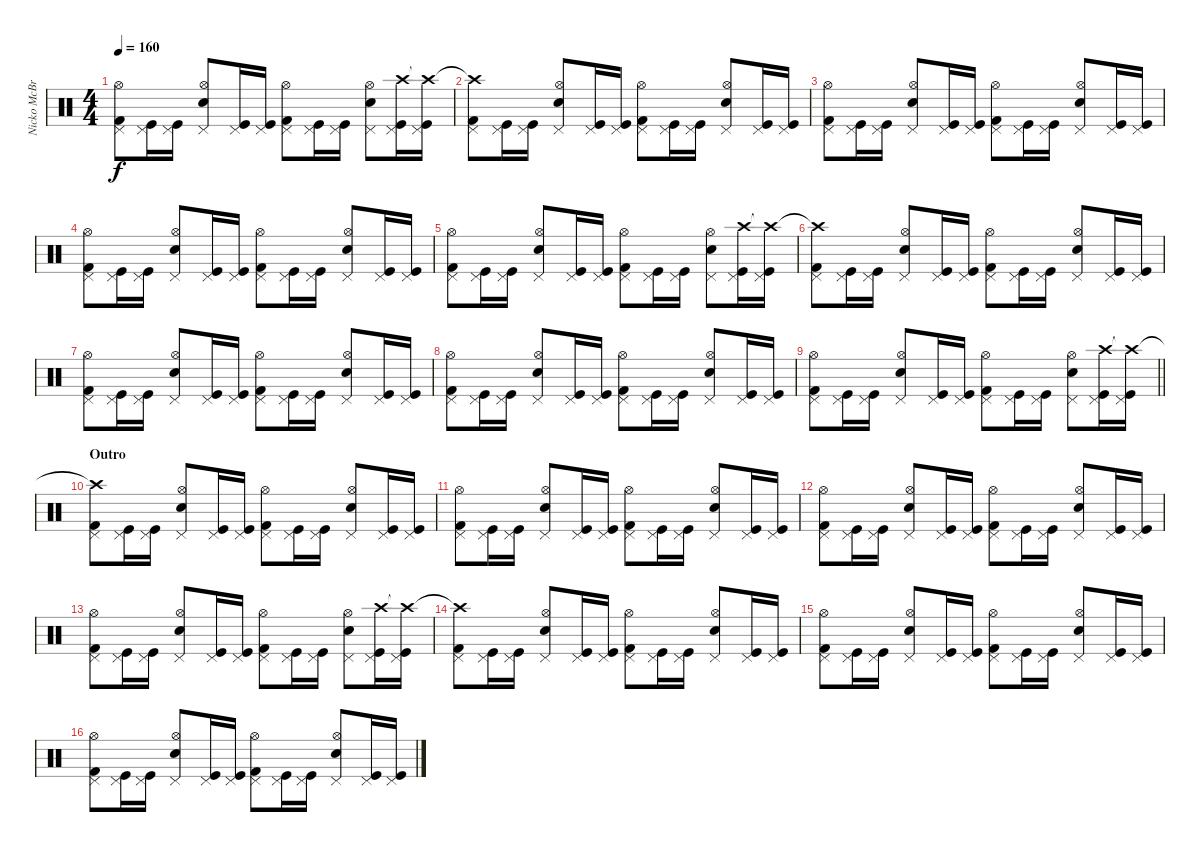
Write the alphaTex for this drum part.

\track ("Nicko McBrain" "Nicko McBr") {instrument percussion}
\staff {score}
\articulation defaults
\ts (4 4)
\tempo 160
\clef neutral
\ks c
("Kick (hit) 2" "Pedal Hi-Hat (hit)" "Hi-Hat (open)").8{dy f} ("Kick (hit)" "Pedal Hi-Hat (hit)").16 ("Kick (hit)" "Pedal Hi-Hat (hit)").16 ("Snare (hit) 2" "Pedal Hi-Hat (hit)" "Hi-Hat (open)").8 ("Kick (hit)" "Pedal Hi-Hat (hit)").16 ("Kick (hit)" "Pedal Hi-Hat (hit)").16 ("Kick (hit) 2" "Pedal Hi-Hat (hit)" "Hi-Hat (open)").8 ("Kick (hit)" "Pedal Hi-Hat (hit)").16 ("Kick (hit)" "Pedal Hi-Hat (hit)").16 ("Snare (hit) 2" "Pedal Hi-Hat (hit)" "Hi-Hat (open)").8 ("Kick (hit)" "Pedal Hi-Hat (hit)" "Crash high (hit)").16 ("Kick (hit)" "Pedal Hi-Hat (hit)" "Crash high (hit)"{t}).16 |
("Kick (hit) 2" "Pedal Hi-Hat (hit)" "Crash high (hit)"{t}).8 ("Kick (hit)" "Pedal Hi-Hat (hit)").16 ("Kick (hit)" "Pedal Hi-Hat (hit)").16 ("Snare (hit) 2" "Pedal Hi-Hat (hit)" "Hi-Hat (open)").8 ("Kick (hit)" "Pedal Hi-Hat (hit)").16 ("Kick (hit)" "Pedal Hi-Hat (hit)").16 ("Kick (hit) 2" "Pedal Hi-Hat (hit)" "Hi-Hat (open)").8 ("Kick (hit)" "Pedal Hi-Hat (hit)").16 ("Kick (hit)" "Pedal Hi-Hat (hit)").16 ("Snare (hit) 2" "Pedal Hi-Hat (hit)" "Hi-Hat (open)").8 ("Kick (hit)" "Pedal Hi-Hat (hit)").16 ("Kick (hit)" "Pedal Hi-Hat (hit)").16 |
("Kick (hit) 2" "Pedal Hi-Hat (hit)" "Hi-Hat (open)").8 ("Kick (hit)" "Pedal Hi-Hat (hit)").16 ("Kick (hit)" "Pedal Hi-Hat (hit)").16 ("Snare (hit) 2" "Pedal Hi-Hat (hit)" "Hi-Hat (open)").8 ("Kick (hit)" "Pedal Hi-Hat (hit)").16 ("Kick (hit)" "Pedal Hi-Hat (hit)").16 ("Kick (hit) 2" "Pedal Hi-Hat (hit)" "Hi-Hat (open)").8 ("Kick (hit)" "Pedal Hi-Hat (hit)").16 ("Kick (hit)" "Pedal Hi-Hat (hit)").16 ("Snare (hit) 2" "Pedal Hi-Hat (hit)" "Hi-Hat (open)").8 ("Kick (hit)" "Pedal Hi-Hat (hit)").16 ("Kick (hit)" "Pedal Hi-Hat (hit)").16 |
("Kick (hit) 2" "Pedal Hi-Hat (hit)" "Hi-Hat (open)").8 ("Kick (hit)" "Pedal Hi-Hat (hit)").16 ("Kick (hit)" "Pedal Hi-Hat (hit)").16 ("Snare (hit) 2" "Pedal Hi-Hat (hit)" "Hi-Hat (open)").8 ("Kick (hit)" "Pedal Hi-Hat (hit)").16 ("Kick (hit)" "Pedal Hi-Hat (hit)").16 ("Kick (hit) 2" "Pedal Hi-Hat (hit)" "Hi-Hat (open)").8 ("Kick (hit)" "Pedal Hi-Hat (hit)").16 ("Kick (hit)" "Pedal Hi-Hat (hit)").16 ("Snare (hit) 2" "Pedal Hi-Hat (hit)" "Hi-Hat (open)").8 ("Kick (hit)" "Pedal Hi-Hat (hit)").16 ("Kick (hit)" "Pedal Hi-Hat (hit)").16 |
("Kick (hit) 2" "Pedal Hi-Hat (hit)" "Hi-Hat (open)").8 ("Kick (hit)" "Pedal Hi-Hat (hit)").16 ("Kick (hit)" "Pedal Hi-Hat (hit)").16 ("Snare (hit) 2" "Pedal Hi-Hat (hit)" "Hi-Hat (open)").8 ("Kick (hit)" "Pedal Hi-Hat (hit)").16 ("Kick (hit)" "Pedal Hi-Hat (hit)").16 ("Kick (hit) 2" "Pedal Hi-Hat (hit)" "Hi-Hat (open)").8 ("Kick (hit)" "Pedal Hi-Hat (hit)").16 ("Kick (hit)" "Pedal Hi-Hat (hit)").16 ("Snare (hit) 2" "Pedal Hi-Hat (hit)" "Hi-Hat (open)").8 ("Kick (hit)" "Pedal Hi-Hat (hit)" "Crash high (hit)").16 ("Kick (hit)" "Pedal Hi-Hat (hit)" "Crash high (hit)"{t}).16 |
("Kick (hit) 2" "Pedal Hi-Hat (hit)" "Crash high (hit)"{t}).8 ("Kick (hit)" "Pedal Hi-Hat (hit)").16 ("Kick (hit)" "Pedal Hi-Hat (hit)").16 ("Snare (hit) 2" "Pedal Hi-Hat (hit)" "Hi-Hat (open)").8 ("Kick (hit)" "Pedal Hi-Hat (hit)").16 ("Kick (hit)" "Pedal Hi-Hat (hit)").16 ("Kick (hit) 2" "Pedal Hi-Hat (hit)" "Hi-Hat (open)").8 ("Kick (hit)" "Pedal Hi-Hat (hit)").16 ("Kick (hit)" "Pedal Hi-Hat (hit)").16 ("Snare (hit) 2" "Pedal Hi-Hat (hit)" "Hi-Hat (open)").8 ("Kick (hit)" "Pedal Hi-Hat (hit)").16 ("Kick (hit)" "Pedal Hi-Hat (hit)").16 |
("Kick (hit) 2" "Pedal Hi-Hat (hit)" "Hi-Hat (open)").8 ("Kick (hit)" "Pedal Hi-Hat (hit)").16 ("Kick (hit)" "Pedal Hi-Hat (hit)").16 ("Snare (hit) 2" "Pedal Hi-Hat (hit)" "Hi-Hat (open)").8 ("Kick (hit)" "Pedal Hi-Hat (hit)").16 ("Kick (hit)" "Pedal Hi-Hat (hit)").16 ("Kick (hit) 2" "Pedal Hi-Hat (hit)" "Hi-Hat (open)").8 ("Kick (hit)" "Pedal Hi-Hat (hit)").16 ("Kick (hit)" "Pedal Hi-Hat (hit)").16 ("Snare (hit) 2" "Pedal Hi-Hat (hit)" "Hi-Hat (open)").8 ("Kick (hit)" "Pedal Hi-Hat (hit)").16 ("Kick (hit)" "Pedal Hi-Hat (hit)").16 |
("Kick (hit) 2" "Pedal Hi-Hat (hit)" "Hi-Hat (open)").8 ("Kick (hit)" "Pedal Hi-Hat (hit)").16 ("Kick (hit)" "Pedal Hi-Hat (hit)").16 ("Snare (hit) 2" "Pedal Hi-Hat (hit)" "Hi-Hat (open)").8 ("Kick (hit)" "Pedal Hi-Hat (hit)").16 ("Kick (hit)" "Pedal Hi-Hat (hit)").16 ("Kick (hit) 2" "Pedal Hi-Hat (hit)" "Hi-Hat (open)").8 ("Kick (hit)" "Pedal Hi-Hat (hit)").16 ("Kick (hit)" "Pedal Hi-Hat (hit)").16 ("Snare (hit) 2" "Pedal Hi-Hat (hit)" "Hi-Hat (open)").8 ("Kick (hit)" "Pedal Hi-Hat (hit)").16 ("Kick (hit)" "Pedal Hi-Hat (hit)").16 |
\barLineRight lightlight
("Kick (hit) 2" "Pedal Hi-Hat (hit)" "Hi-Hat (open)").8 ("Kick (hit)" "Pedal Hi-Hat (hit)").16 ("Kick (hit)" "Pedal Hi-Hat (hit)").16 ("Snare (hit) 2" "Pedal Hi-Hat (hit)" "Hi-Hat (open)").8 ("Kick (hit)" "Pedal Hi-Hat (hit)").16 ("Kick (hit)" "Pedal Hi-Hat (hit)").16 ("Kick (hit) 2" "Pedal Hi-Hat (hit)" "Hi-Hat (open)").8 ("Kick (hit)" "Pedal Hi-Hat (hit)").16 ("Kick (hit)" "Pedal Hi-Hat (hit)").16 ("Snare (hit) 2" "Pedal Hi-Hat (hit)" "Hi-Hat (open)").8 ("Kick (hit)" "Pedal Hi-Hat (hit)" "Crash high (hit)").16 ("Kick (hit)" "Pedal Hi-Hat (hit)" "Crash high (hit)"{t}).16 |
\section ("" "Outro")
("Kick (hit) 2" "Pedal Hi-Hat (hit)" "Crash high (hit)"{t}).8 ("Kick (hit)" "Pedal Hi-Hat (hit)").16 ("Kick (hit)" "Pedal Hi-Hat (hit)").16 ("Snare (hit) 2" "Pedal Hi-Hat (hit)" "Hi-Hat (open)").8 ("Kick (hit)" "Pedal Hi-Hat (hit)").16 ("Kick (hit)" "Pedal Hi-Hat (hit)").16 ("Kick (hit) 2" "Pedal Hi-Hat (hit)" "Hi-Hat (open)").8 ("Kick (hit)" "Pedal Hi-Hat (hit)").16 ("Kick (hit)" "Pedal Hi-Hat (hit)").16 ("Snare (hit) 2" "Pedal Hi-Hat (hit)" "Hi-Hat (open)").8 ("Kick (hit)" "Pedal Hi-Hat (hit)").16 ("Kick (hit)" "Pedal Hi-Hat (hit)").16 |
("Kick (hit) 2" "Pedal Hi-Hat (hit)" "Hi-Hat (open)").8 ("Kick (hit)" "Pedal Hi-Hat (hit)").16 ("Kick (hit)" "Pedal Hi-Hat (hit)").16 ("Snare (hit) 2" "Pedal Hi-Hat (hit)" "Hi-Hat (open)").8 ("Kick (hit)" "Pedal Hi-Hat (hit)").16 ("Kick (hit)" "Pedal Hi-Hat (hit)").16 ("Kick (hit) 2" "Pedal Hi-Hat (hit)" "Hi-Hat (open)").8 ("Kick (hit)" "Pedal Hi-Hat (hit)").16 ("Kick (hit)" "Pedal Hi-Hat (hit)").16 ("Snare (hit) 2" "Pedal Hi-Hat (hit)" "Hi-Hat (open)").8 ("Kick (hit)" "Pedal Hi-Hat (hit)").16 ("Kick (hit)" "Pedal Hi-Hat (hit)").16 |
("Kick (hit) 2" "Pedal Hi-Hat (hit)" "Hi-Hat (open)").8 ("Kick (hit)" "Pedal Hi-Hat (hit)").16 ("Kick (hit)" "Pedal Hi-Hat (hit)").16 ("Snare (hit) 2" "Pedal Hi-Hat (hit)" "Hi-Hat (open)").8 ("Kick (hit)" "Pedal Hi-Hat (hit)").16 ("Kick (hit)" "Pedal Hi-Hat (hit)").16 ("Kick (hit) 2" "Pedal Hi-Hat (hit)" "Hi-Hat (open)").8 ("Kick (hit)" "Pedal Hi-Hat (hit)").16 ("Kick (hit)" "Pedal Hi-Hat (hit)").16 ("Snare (hit) 2" "Pedal Hi-Hat (hit)" "Hi-Hat (open)").8 ("Kick (hit)" "Pedal Hi-Hat (hit)").16 ("Kick (hit)" "Pedal Hi-Hat (hit)").16 |
("Kick (hit) 2" "Pedal Hi-Hat (hit)" "Hi-Hat (open)").8 ("Kick (hit)" "Pedal Hi-Hat (hit)").16 ("Kick (hit)" "Pedal Hi-Hat (hit)").16 ("Snare (hit) 2" "Pedal Hi-Hat (hit)" "Hi-Hat (open)").8 ("Kick (hit)" "Pedal Hi-Hat (hit)").16 ("Kick (hit)" "Pedal Hi-Hat (hit)").16 ("Kick (hit) 2" "Pedal Hi-Hat (hit)" "Hi-Hat (open)").8 ("Kick (hit)" "Pedal Hi-Hat (hit)").16 ("Kick (hit)" "Pedal Hi-Hat (hit)").16 ("Snare (hit) 2" "Pedal Hi-Hat (hit)" "Hi-Hat (open)").8 ("Kick (hit)" "Pedal Hi-Hat (hit)" "Crash high (hit)").16 ("Kick (hit)" "Pedal Hi-Hat (hit)" "Crash high (hit)"{t}).16 |
("Kick (hit) 2" "Pedal Hi-Hat (hit)" "Crash high (hit)"{t}).8 ("Kick (hit)" "Pedal Hi-Hat (hit)").16 ("Kick (hit)" "Pedal Hi-Hat (hit)").16 ("Snare (hit) 2" "Pedal Hi-Hat (hit)" "Hi-Hat (open)").8 ("Kick (hit)" "Pedal Hi-Hat (hit)").16 ("Kick (hit)" "Pedal Hi-Hat (hit)").16 ("Kick (hit) 2" "Pedal Hi-Hat (hit)" "Hi-Hat (open)").8 ("Kick (hit)" "Pedal Hi-Hat (hit)").16 ("Kick (hit)" "Pedal Hi-Hat (hit)").16 ("Snare (hit) 2" "Pedal Hi-Hat (hit)" "Hi-Hat (open)").8 ("Kick (hit)" "Pedal Hi-Hat (hit)").16 ("Kick (hit)" "Pedal Hi-Hat (hit)").16 |
("Kick (hit) 2" "Pedal Hi-Hat (hit)" "Hi-Hat (open)").8 ("Kick (hit)" "Pedal Hi-Hat (hit)").16 ("Kick (hit)" "Pedal Hi-Hat (hit)").16 ("Snare (hit) 2" "Pedal Hi-Hat (hit)" "Hi-Hat (open)").8 ("Kick (hit)" "Pedal Hi-Hat (hit)").16 ("Kick (hit)" "Pedal Hi-Hat (hit)").16 ("Kick (hit) 2" "Pedal Hi-Hat (hit)" "Hi-Hat (open)").8 ("Kick (hit)" "Pedal Hi-Hat (hit)").16 ("Kick (hit)" "Pedal Hi-Hat (hit)").16 ("Snare (hit) 2" "Pedal Hi-Hat (hit)" "Hi-Hat (open)").8 ("Kick (hit)" "Pedal Hi-Hat (hit)").16 ("Kick (hit)" "Pedal Hi-Hat (hit)").16 |
("Kick (hit) 2" "Pedal Hi-Hat (hit)" "Hi-Hat (open)").8 ("Kick (hit)" "Pedal Hi-Hat (hit)").16 ("Kick (hit)" "Pedal Hi-Hat (hit)").16 ("Snare (hit) 2" "Pedal Hi-Hat (hit)" "Hi-Hat (open)").8 ("Kick (hit)" "Pedal Hi-Hat (hit)").16 ("Kick (hit)" "Pedal Hi-Hat (hit)").16 ("Kick (hit) 2" "Pedal Hi-Hat (hit)" "Hi-Hat (open)").8 ("Kick (hit)" "Pedal Hi-Hat (hit)").16 ("Kick (hit)" "Pedal Hi-Hat (hit)").16 ("Snare (hit) 2" "Pedal Hi-Hat (hit)" "Hi-Hat (open)").8 ("Kick (hit)" "Pedal Hi-Hat (hit)").16 ("Kick (hit)" "Pedal Hi-Hat (hit)").16
